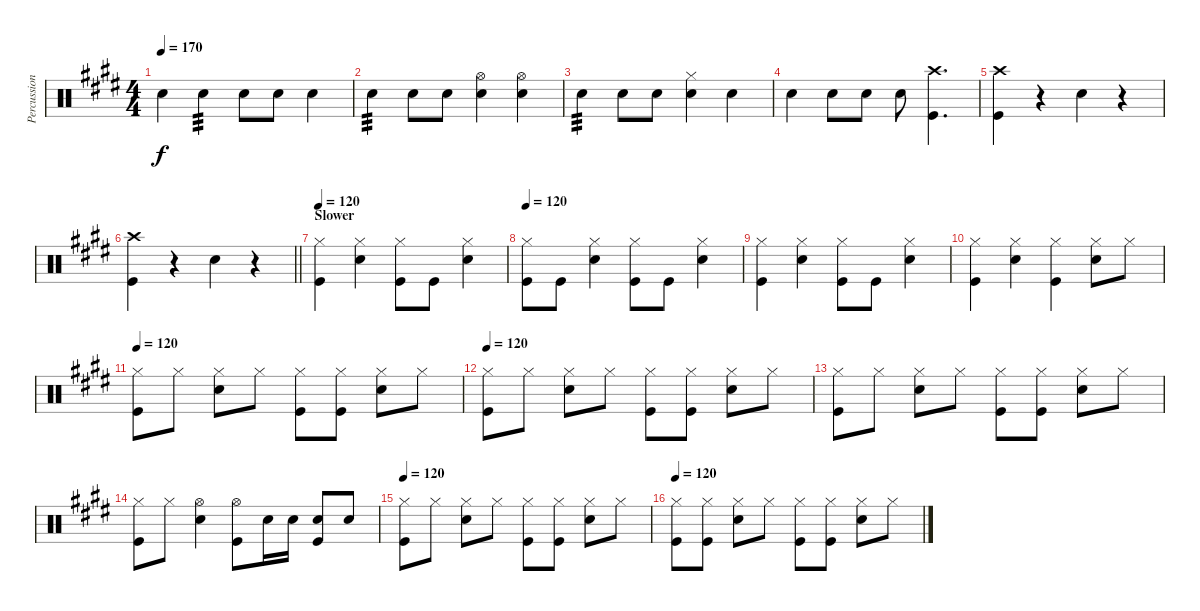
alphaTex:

\track ("Percussion" "Percussion") {instrument percussion}
\staff {score}
\articulation defaults
\ts (4 4)
\tempo 170
\clef neutral
\ks e "Snare (hit) 2".4{dy f} "Snare (hit) 2".4{tp 3} "Snare (hit) 2".8 "Snare (hit) 2".8 "Snare (hit) 2".4
|
"Snare (hit) 2".4{tp 3} "Snare (hit) 2".8 "Snare (hit) 2".8 ("Snare (hit) 2" "Hi-Hat (open)").4 ("Snare (hit) 2" "Hi-Hat (open)").4 |
"Snare (hit) 2".4{tp 3} "Snare (hit) 2".8 "Snare (hit) 2".8 ("Snare (hit) 2" "Hi-Hat (closed)").4 "Snare (hit) 2".4 |
"Snare (hit) 2".4 "Snare (hit) 2".8 "Snare (hit) 2".8 "Snare (hit) 2".8 ("Kick (hit)" "Crash high (hit)").4{d} |
("Crash high (hit)" "Kick (hit)").4 r.4 "Snare (hit) 2".4 r.4 |
\barLineRight lightlight
("Crash high (hit)" "Kick (hit)").4 r.4 "Snare (hit) 2".4 r.4 |
\section ("" "Slower")
\tempo 120
("Hi-Hat (closed)" "Kick (hit)").4 ("Hi-Hat (closed)" "Snare (hit) 2").4 ("Hi-Hat (closed)" "Kick (hit)").8 "Kick (hit)".8 ("Snare (hit) 2" "Hi-Hat (closed)").4 |
\tempo 120
("Hi-Hat (closed)" "Kick (hit)").8 "Kick (hit)".8 ("Hi-Hat (closed)" "Snare (hit) 2").4 ("Hi-Hat (closed)" "Kick (hit)").8 "Kick (hit)".8 ("Snare (hit) 2" "Hi-Hat (closed)").4 |
("Hi-Hat (closed)" "Kick (hit)").4 ("Hi-Hat (closed)" "Snare (hit) 2").4 ("Hi-Hat (closed)" "Kick (hit)").8 "Kick (hit)".8 ("Snare (hit) 2" "Hi-Hat (closed)").4 |
("Kick (hit)" "Hi-Hat (closed)").4 ("Snare (hit) 2" "Hi-Hat (closed)").4 ("Kick (hit)" "Hi-Hat (closed)").4 ("Snare (hit) 2" "Hi-Hat (closed)").8 "Hi-Hat (closed)".8 |
\tempo 120
("Kick (hit)" "Hi-Hat (closed)").8 "Hi-Hat (closed)".8 ("Hi-Hat (closed)" "Snare (hit) 2").8 "Hi-Hat (closed)".8 ("Kick (hit)" "Hi-Hat (closed)").8 ("Hi-Hat (closed)" "Kick (hit)").8 ("Hi-Hat (closed)" "Snare (hit) 2").8 "Hi-Hat (closed)".8 |
\tempo 120
("Kick (hit)" "Hi-Hat (closed)").8 "Hi-Hat (closed)".8 ("Hi-Hat (closed)" "Snare (hit) 2").8 "Hi-Hat (closed)".8 ("Kick (hit)" "Hi-Hat (closed)").8 ("Hi-Hat (closed)" "Kick (hit)").8 ("Hi-Hat (closed)" "Snare (hit) 2").8 "Hi-Hat (closed)".8 |
("Kick (hit)" "Hi-Hat (closed)").8 "Hi-Hat (closed)".8 ("Hi-Hat (closed)" "Snare (hit) 2").8 "Hi-Hat (closed)".8 ("Kick (hit)" "Hi-Hat (closed)").8 ("Hi-Hat (closed)" "Kick (hit)").8 ("Hi-Hat (closed)" "Snare (hit) 2").8 "Hi-Hat (closed)".8 |
("Hi-Hat (closed)" "Kick (hit)").8 "Hi-Hat (closed)".8 ("Snare (hit) 2" "Hi-Hat (open)").4 ("Hi-Hat (open)" "Kick (hit)").8 "Snare (hit) 2".16 "Snare (hit) 2".16 ("Snare (hit) 2" "Kick (hit)").8 "Snare (hit) 2".8 |
\tempo 120
("Kick (hit)" "Hi-Hat (closed)").8 "Hi-Hat (closed)".8 ("Hi-Hat (closed)" "Snare (hit) 2").8 "Hi-Hat (closed)".8 ("Kick (hit)" "Hi-Hat (closed)").8 ("Hi-Hat (closed)" "Kick (hit)").8 ("Hi-Hat (closed)" "Snare (hit) 2").8 "Hi-Hat (closed)".8 |
\tempo 120
("Kick (hit)" "Hi-Hat (closed)").8 ("Kick (hit)" "Hi-Hat (closed)").8 ("Hi-Hat (closed)" "Snare (hit) 2").8 "Hi-Hat (closed)".8 ("Kick (hit)" "Hi-Hat (closed)").8 ("Hi-Hat (closed)" "Kick (hit)").8 ("Hi-Hat (closed)" "Snare (hit) 2").8 "Hi-Hat (closed)".8
